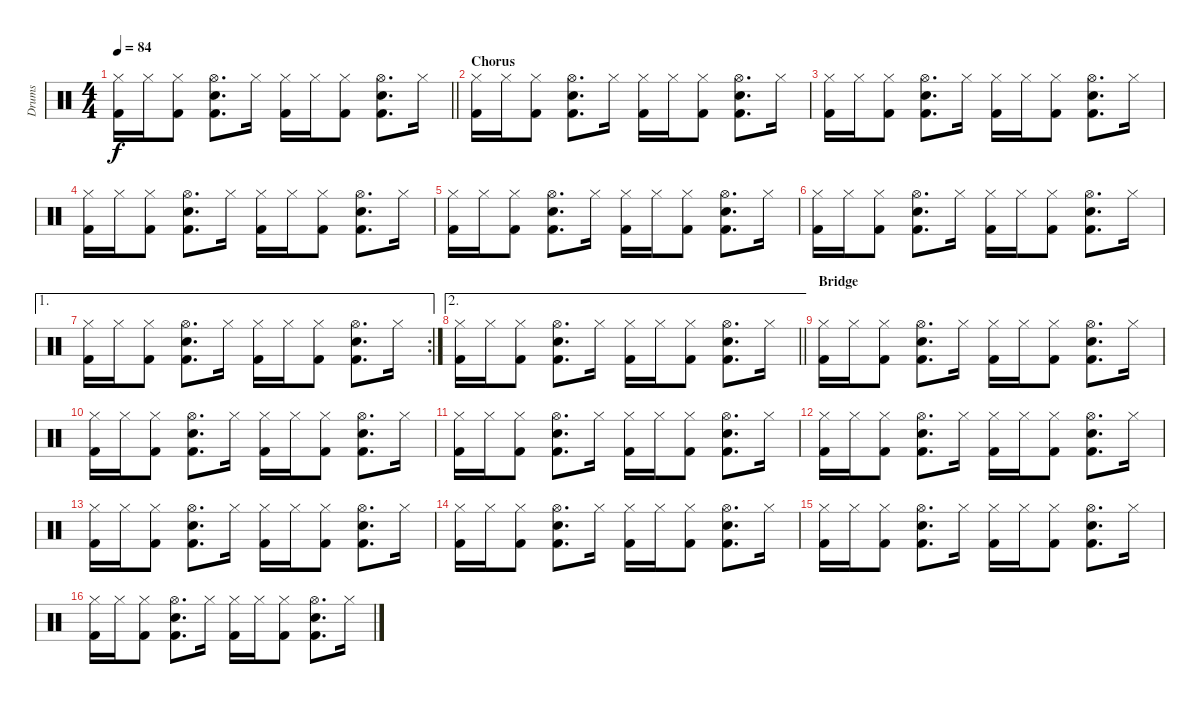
\track ("Drums" "Drums") {instrument percussion}
\staff {score}
\articulation defaults
\ts (4 4)
\tempo 84
\clef neutral
\barLineRight lightlight
\ks c
("Kick (hit) 2" "Hi-Hat (closed)").16{dy f} "Hi-Hat (closed)".16 ("Kick (hit) 2" "Hi-Hat (closed)").8 ("Kick (hit) 2" "Hi-Hat (open)" "Snare (hit) 2").8{d} "Hi-Hat (closed)".16 ("Kick (hit) 2" "Hi-Hat (closed)").16 "Hi-Hat (closed)".16 ("Kick (hit) 2" "Hi-Hat (closed)").8 ("Kick (hit) 2" "Hi-Hat (open)" "Snare (hit) 2").8{d} "Hi-Hat (closed)".16 |
\section ("" "Chorus")
("Kick (hit) 2" "Hi-Hat (closed)").16 "Hi-Hat (closed)".16 ("Kick (hit) 2" "Hi-Hat (closed)").8 ("Kick (hit) 2" "Hi-Hat (open)" "Snare (hit) 2").8{d} "Hi-Hat (closed)".16 ("Kick (hit) 2" "Hi-Hat (closed)").16 "Hi-Hat (closed)".16 ("Kick (hit) 2" "Hi-Hat (closed)").8 ("Kick (hit) 2" "Hi-Hat (open)" "Snare (hit) 2").8{d} "Hi-Hat (closed)".16 |
("Kick (hit) 2" "Hi-Hat (closed)").16 "Hi-Hat (closed)".16 ("Kick (hit) 2" "Hi-Hat (closed)").8 ("Kick (hit) 2" "Hi-Hat (open)" "Snare (hit) 2").8{d} "Hi-Hat (closed)".16 ("Kick (hit) 2" "Hi-Hat (closed)").16 "Hi-Hat (closed)".16 ("Kick (hit) 2" "Hi-Hat (closed)").8 ("Kick (hit) 2" "Hi-Hat (open)" "Snare (hit) 2").8{d} "Hi-Hat (closed)".16 |
("Kick (hit) 2" "Hi-Hat (closed)").16 "Hi-Hat (closed)".16 ("Kick (hit) 2" "Hi-Hat (closed)").8 ("Kick (hit) 2" "Hi-Hat (open)" "Snare (hit) 2").8{d} "Hi-Hat (closed)".16 ("Kick (hit) 2" "Hi-Hat (closed)").16 "Hi-Hat (closed)".16 ("Kick (hit) 2" "Hi-Hat (closed)").8 ("Kick (hit) 2" "Hi-Hat (open)" "Snare (hit) 2").8{d} "Hi-Hat (closed)".16 |
("Kick (hit) 2" "Hi-Hat (closed)").16 "Hi-Hat (closed)".16 ("Kick (hit) 2" "Hi-Hat (closed)").8 ("Kick (hit) 2" "Hi-Hat (open)" "Snare (hit) 2").8{d} "Hi-Hat (closed)".16 ("Kick (hit) 2" "Hi-Hat (closed)").16 "Hi-Hat (closed)".16 ("Kick (hit) 2" "Hi-Hat (closed)").8 ("Kick (hit) 2" "Hi-Hat (open)" "Snare (hit) 2").8{d} "Hi-Hat (closed)".16 |
("Kick (hit) 2" "Hi-Hat (closed)").16 "Hi-Hat (closed)".16 ("Kick (hit) 2" "Hi-Hat (closed)").8 ("Kick (hit) 2" "Hi-Hat (open)" "Snare (hit) 2").8{d} "Hi-Hat (closed)".16 ("Kick (hit) 2" "Hi-Hat (closed)").16 "Hi-Hat (closed)".16 ("Kick (hit) 2" "Hi-Hat (closed)").8 ("Kick (hit) 2" "Hi-Hat (open)" "Snare (hit) 2").8{d} "Hi-Hat (closed)".16 |
\ae 1
\rc 2
("Kick (hit) 2" "Hi-Hat (closed)").16 "Hi-Hat (closed)".16 ("Kick (hit) 2" "Hi-Hat (closed)").8 ("Kick (hit) 2" "Hi-Hat (open)" "Snare (hit) 2").8{d} "Hi-Hat (closed)".16 ("Kick (hit) 2" "Hi-Hat (closed)").16 "Hi-Hat (closed)".16 ("Kick (hit) 2" "Hi-Hat (closed)").8 ("Kick (hit) 2" "Hi-Hat (open)" "Snare (hit) 2").8{d} "Hi-Hat (closed)".16 |
\ae 2
\barLineRight lightlight
("Kick (hit) 2" "Hi-Hat (closed)").16 "Hi-Hat (closed)".16 ("Kick (hit) 2" "Hi-Hat (closed)").8 ("Kick (hit) 2" "Hi-Hat (open)" "Snare (hit) 2").8{d} "Hi-Hat (closed)".16 ("Kick (hit) 2" "Hi-Hat (closed)").16 "Hi-Hat (closed)".16 ("Kick (hit) 2" "Hi-Hat (closed)").8 ("Kick (hit) 2" "Hi-Hat (open)" "Snare (hit) 2").8{d} "Hi-Hat (closed)".16 |
\section ("" "Bridge")
("Kick (hit) 2" "Hi-Hat (closed)").16 "Hi-Hat (closed)".16 ("Kick (hit) 2" "Hi-Hat (closed)").8 ("Kick (hit) 2" "Hi-Hat (open)" "Snare (hit) 2").8{d} "Hi-Hat (closed)".16 ("Kick (hit) 2" "Hi-Hat (closed)").16 "Hi-Hat (closed)".16 ("Kick (hit) 2" "Hi-Hat (closed)").8 ("Kick (hit) 2" "Hi-Hat (open)" "Snare (hit) 2").8{d} "Hi-Hat (closed)".16 |
("Kick (hit) 2" "Hi-Hat (closed)").16 "Hi-Hat (closed)".16 ("Kick (hit) 2" "Hi-Hat (closed)").8 ("Kick (hit) 2" "Hi-Hat (open)" "Snare (hit) 2").8{d} "Hi-Hat (closed)".16 ("Kick (hit) 2" "Hi-Hat (closed)").16 "Hi-Hat (closed)".16 ("Kick (hit) 2" "Hi-Hat (closed)").8 ("Kick (hit) 2" "Hi-Hat (open)" "Snare (hit) 2").8{d} "Hi-Hat (closed)".16 |
("Kick (hit) 2" "Hi-Hat (closed)").16 "Hi-Hat (closed)".16 ("Kick (hit) 2" "Hi-Hat (closed)").8 ("Kick (hit) 2" "Hi-Hat (open)" "Snare (hit) 2").8{d} "Hi-Hat (closed)".16 ("Kick (hit) 2" "Hi-Hat (closed)").16 "Hi-Hat (closed)".16 ("Kick (hit) 2" "Hi-Hat (closed)").8 ("Kick (hit) 2" "Hi-Hat (open)" "Snare (hit) 2").8{d} "Hi-Hat (closed)".16 |
("Kick (hit) 2" "Hi-Hat (closed)").16 "Hi-Hat (closed)".16 ("Kick (hit) 2" "Hi-Hat (closed)").8 ("Kick (hit) 2" "Hi-Hat (open)" "Snare (hit) 2").8{d} "Hi-Hat (closed)".16 ("Kick (hit) 2" "Hi-Hat (closed)").16 "Hi-Hat (closed)".16 ("Kick (hit) 2" "Hi-Hat (closed)").8 ("Kick (hit) 2" "Hi-Hat (open)" "Snare (hit) 2").8{d} "Hi-Hat (closed)".16 |
("Kick (hit) 2" "Hi-Hat (closed)").16 "Hi-Hat (closed)".16 ("Kick (hit) 2" "Hi-Hat (closed)").8 ("Kick (hit) 2" "Hi-Hat (open)" "Snare (hit) 2").8{d} "Hi-Hat (closed)".16 ("Kick (hit) 2" "Hi-Hat (closed)").16 "Hi-Hat (closed)".16 ("Kick (hit) 2" "Hi-Hat (closed)").8 ("Kick (hit) 2" "Hi-Hat (open)" "Snare (hit) 2").8{d} "Hi-Hat (closed)".16 |
("Kick (hit) 2" "Hi-Hat (closed)").16 "Hi-Hat (closed)".16 ("Kick (hit) 2" "Hi-Hat (closed)").8 ("Kick (hit) 2" "Hi-Hat (open)" "Snare (hit) 2").8{d} "Hi-Hat (closed)".16 ("Kick (hit) 2" "Hi-Hat (closed)").16 "Hi-Hat (closed)".16 ("Kick (hit) 2" "Hi-Hat (closed)").8 ("Kick (hit) 2" "Hi-Hat (open)" "Snare (hit) 2").8{d} "Hi-Hat (closed)".16 |
("Kick (hit) 2" "Hi-Hat (closed)").16 "Hi-Hat (closed)".16 ("Kick (hit) 2" "Hi-Hat (closed)").8 ("Kick (hit) 2" "Hi-Hat (open)" "Snare (hit) 2").8{d} "Hi-Hat (closed)".16 ("Kick (hit) 2" "Hi-Hat (closed)").16 "Hi-Hat (closed)".16 ("Kick (hit) 2" "Hi-Hat (closed)").8 ("Kick (hit) 2" "Hi-Hat (open)" "Snare (hit) 2").8{d} "Hi-Hat (closed)".16 |
("Kick (hit) 2" "Hi-Hat (closed)").16 "Hi-Hat (closed)".16 ("Kick (hit) 2" "Hi-Hat (closed)").8 ("Kick (hit) 2" "Hi-Hat (open)" "Snare (hit) 2").8{d} "Hi-Hat (closed)".16 ("Kick (hit) 2" "Hi-Hat (closed)").16 "Hi-Hat (closed)".16 ("Kick (hit) 2" "Hi-Hat (closed)").8 ("Kick (hit) 2" "Hi-Hat (open)" "Snare (hit) 2").8{d} "Hi-Hat (closed)".16
